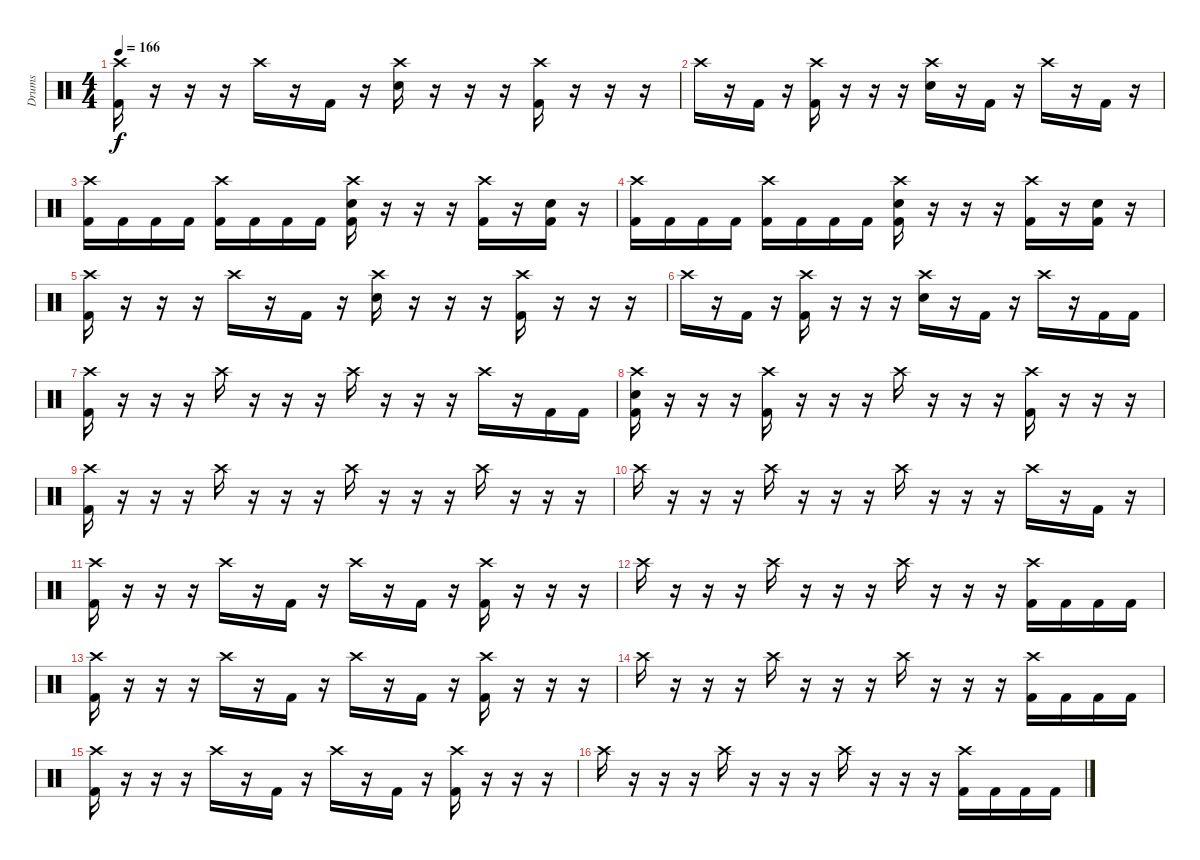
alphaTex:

\track ("Drums" "Drums") {instrument percussion}
\staff {score}
\articulation defaults
\ts (4 4)
\tempo 166
\clef neutral
\ks c
("Crash high (hit)" "Kick (hit) 2").16{dy f} r.16 r.16 r.16 "Crash high (hit)".16 r.16 "Kick (hit) 2".16 r.16 ("Crash high (hit)" "Electric Snare (hit)").16 r.16 r.16 r.16 ("Crash high (hit)" "Kick (hit) 2").16 r.16 r.16 r.16 |
"Crash high (hit)".16 r.16 "Kick (hit) 2".16 r.16 ("Crash high (hit)" "Kick (hit) 2").16 r.16 r.16 r.16 ("Crash high (hit)" "Electric Snare (hit)").16 r.16 "Kick (hit) 2".16 r.16 "Crash high (hit)".16 r.16 "Kick (hit) 2".16 r.16 |
("Crash high (hit)" "Kick (hit) 2").16 "Kick (hit) 2".16 "Kick (hit) 2".16 "Kick (hit) 2".16 ("Crash high (hit)" "Kick (hit) 2").16 "Kick (hit) 2".16 "Kick (hit) 2".16 "Kick (hit) 2".16 ("Crash high (hit)" "Electric Snare (hit)" "Kick (hit) 2").16 r.16 r.16 r.16 ("Crash high (hit)" "Kick (hit) 2").16 r.16 ("Electric Snare (hit)" "Kick (hit) 2").16 r.16 |
("Crash high (hit)" "Kick (hit) 2").16 "Kick (hit) 2".16 "Kick (hit) 2".16 "Kick (hit) 2".16 ("Crash high (hit)" "Kick (hit) 2").16 "Kick (hit) 2".16 "Kick (hit) 2".16 "Kick (hit) 2".16 ("Crash high (hit)" "Electric Snare (hit)" "Kick (hit) 2").16 r.16 r.16 r.16 ("Crash high (hit)" "Kick (hit) 2").16 r.16 ("Electric Snare (hit)" "Kick (hit) 2").16 r.16 |
("Crash high (hit)" "Kick (hit) 2").16 r.16 r.16 r.16 "Crash high (hit)".16 r.16 "Kick (hit) 2".16 r.16 ("Crash high (hit)" "Electric Snare (hit)").16 r.16 r.16 r.16 ("Crash high (hit)" "Kick (hit) 2").16 r.16 r.16 r.16 |
"Crash high (hit)".16 r.16 "Kick (hit) 2".16 r.16 ("Crash high (hit)" "Kick (hit) 2").16 r.16 r.16 r.16 ("Crash high (hit)" "Electric Snare (hit)").16 r.16 "Kick (hit) 2".16 r.16 "Crash high (hit)".16 r.16 "Kick (hit) 2".16 "Kick (hit) 2".16 |
("Crash high (hit)" "Kick (hit) 2").16 r.16 r.16 r.16 "Crash high (hit)".16 r.16 r.16 r.16 "Crash high (hit)".16 r.16 r.16 r.16 "Crash high (hit)".16 r.16 "Kick (hit) 2".16 "Kick (hit) 2".16 |
("Crash high (hit)" "Electric Snare (hit)" "Kick (hit) 2").16 r.16 r.16 r.16 ("Crash high (hit)" "Kick (hit) 2").16 r.16 r.16 r.16 "Crash high (hit)".16 r.16 r.16 r.16 ("Crash high (hit)" "Kick (hit) 2").16 r.16 r.16 r.16 |
("Crash high (hit)" "Kick (hit) 2").16 r.16 r.16 r.16 "Crash high (hit)".16 r.16 r.16 r.16 "Crash high (hit)".16 r.16 r.16 r.16 "Crash high (hit)".16 r.16 r.16 r.16 |
"Crash high (hit)".16 r.16 r.16 r.16 "Crash high (hit)".16 r.16 r.16 r.16 "Crash high (hit)".16 r.16 r.16 r.16 "Crash high (hit)".16 r.16 "Kick (hit) 2".16 r.16 |
("Crash high (hit)" "Kick (hit) 2").16 r.16 r.16 r.16 "Crash high (hit)".16 r.16 "Kick (hit) 2".16 r.16 "Crash high (hit)".16 r.16 "Kick (hit) 2".16 r.16 ("Crash high (hit)" "Kick (hit) 2").16 r.16 r.16 r.16 |
"Crash high (hit)".16 r.16 r.16 r.16 "Crash high (hit)".16 r.16 r.16 r.16 "Crash high (hit)".16 r.16 r.16 r.16 ("Crash high (hit)" "Kick (hit) 2").16 "Kick (hit) 2".16 "Kick (hit) 2".16 "Kick (hit) 2".16 |
("Crash high (hit)" "Kick (hit) 2").16 r.16 r.16 r.16 "Crash high (hit)".16 r.16 "Kick (hit) 2".16 r.16 "Crash high (hit)".16 r.16 "Kick (hit) 2".16 r.16 ("Crash high (hit)" "Kick (hit) 2").16 r.16 r.16 r.16 |
"Crash high (hit)".16 r.16 r.16 r.16 "Crash high (hit)".16 r.16 r.16 r.16 "Crash high (hit)".16 r.16 r.16 r.16 ("Crash high (hit)" "Kick (hit) 2").16 "Kick (hit) 2".16 "Kick (hit) 2".16 "Kick (hit) 2".16 |
("Crash high (hit)" "Kick (hit) 2").16 r.16 r.16 r.16 "Crash high (hit)".16 r.16 "Kick (hit) 2".16 r.16 "Crash high (hit)".16 r.16 "Kick (hit) 2".16 r.16 ("Crash high (hit)" "Kick (hit) 2").16 r.16 r.16 r.16 |
"Crash high (hit)".16 r.16 r.16 r.16 "Crash high (hit)".16 r.16 r.16 r.16 "Crash high (hit)".16 r.16 r.16 r.16 ("Crash high (hit)" "Kick (hit) 2").16 "Kick (hit) 2".16 "Kick (hit) 2".16 "Kick (hit) 2".16
